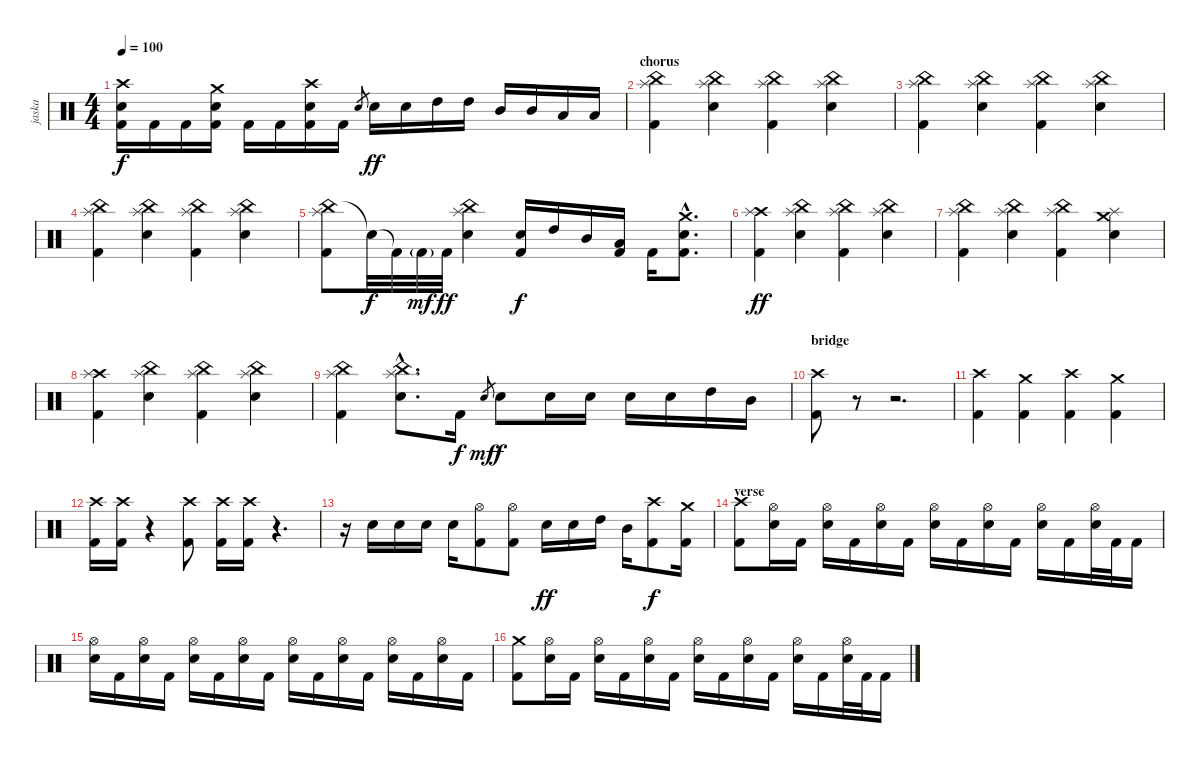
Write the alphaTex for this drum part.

\track ("jaska" "jaska") {instrument percussion}
\staff {score}
\articulation defaults
\ts (4 4)
\tempo 100
\clef neutral
\ks c
("Crash high (hit)" "Electric Snare (hit)" "Kick (hit) 2").16{dy f} "Kick (hit) 2".16 "Kick (hit) 2".16 ("Crash medium (hit)" "Electric Snare (hit)" "Kick (hit) 2").16 "Kick (hit) 2".16 "Kick (hit) 2".16 ("Crash high (hit)" "Electric Snare (hit)" "Kick (hit) 2").16 "Kick (hit) 2".16 "Electric Snare (hit)".8{gr} "Electric Snare (hit)".16{dy ff} "Electric Snare (hit)".16 "High Tom (hit)".16 "High Tom (hit)".16 "Mid Tom (hit)".16 "Mid Tom (hit)".16 "Low Tom (hit)".16 "Low Tom (hit)".16 |
\section ("" "chorus")
("China (hit)" "Splash (hit)" "Kick (hit) 2").4 ("China (hit)" "Splash (hit)" "Electric Snare (hit)").4 ("China (hit)" "Splash (hit)" "Kick (hit) 2").4 ("China (hit)" "Splash (hit)" "Electric Snare (hit)").4 |
("China (hit)" "Splash (hit)" "Kick (hit) 2").4 ("China (hit)" "Splash (hit)" "Electric Snare (hit)").4 ("China (hit)" "Splash (hit)" "Kick (hit) 2").4 ("China (hit)" "Splash (hit)" "Electric Snare (hit)").4 |
("China (hit)" "Splash (hit)" "Kick (hit) 2").4 ("China (hit)" "Splash (hit)" "Electric Snare (hit)").4 ("China (hit)" "Splash (hit)" "Kick (hit) 2").4 ("China (hit)" "Splash (hit)" "Electric Snare (hit)").4 |
("China (hit)" "Splash (hit)" "Kick (hit) 2").8 "Snare (hit)"{t}.32{dy f} "Kick (hit) 2"{t}.32 "Kick (hit) 2"{g}.32{dy mf} "Kick (hit) 2".32{dy ff} ("China (hit)" "Splash (hit)" "Electric Snare (hit)").4 ("Electric Snare (hit)" "Kick (hit) 2").16{dy f} "High Tom (hit)".16 "Mid Tom (hit)".16 ("Low Tom (hit)" "Kick (hit) 2").16 "Kick (hit) 2".16 ("Crash medium (hit)"{hac} "Electric Snare (hit)"{hac} "Kick (hit) 2"{hac}).8{d} |
("Crash high (hit)" "Splash (hit)" "Kick (hit) 2").4{dy ff} ("China (hit)" "Splash (hit)" "Electric Snare (hit)").4 ("China (hit)" "Splash (hit)" "Kick (hit) 2").4 ("China (hit)" "Splash (hit)" "Electric Snare (hit)").4 |
("China (hit)" "Splash (hit)" "Kick (hit) 2").4 ("China (hit)" "Splash (hit)" "Electric Snare (hit)").4 ("China (hit)" "Splash (hit)" "Kick (hit) 2").4 ("Crash medium (hit)" "Splash (hit)" "Electric Snare (hit)").4 |
("Crash high (hit)" "Splash (hit)" "Kick (hit) 2").4 ("China (hit)" "Splash (hit)" "Electric Snare (hit)").4 ("China (hit)" "Splash (hit)" "Kick (hit) 2").4 ("China (hit)" "Splash (hit)" "Electric Snare (hit)").4 |
("China (hit)" "Splash (hit)" "Kick (hit) 2").4 ("China (hit)"{hac} "Splash (hit)"{hac} "Electric Snare (hit)"{hac}).8{d} "Kick (hit) 2".16{dy f} "Electric Snare (hit)".8{gr dy mf} "Electric Snare (hit)".8{dy f} "Electric Snare (hit)".16 "Electric Snare (hit)".16 "Electric Snare (hit)".16 "Electric Snare (hit)".16 "High Tom (hit)".16 "Mid Tom (hit)".16 |
\section ("" "bridge")
("Crash high (hit)"{pm} "Kick (hit) 2").8 r.8 r.2{d} |
("Crash high (hit)" "Kick (hit) 2").4 ("Crash medium (hit)" "Kick (hit) 2").4 ("Crash high (hit)" "Kick (hit) 2").4 ("Crash medium (hit)" "Kick (hit) 2").4 |
("Crash high (hit)"{pm} "Kick (hit) 2").16 ("Crash high (hit)"{pm} "Kick (hit) 2").16 r.4 ("Crash high (hit)"{pm} "Kick (hit) 2").8 ("Crash high (hit)"{pm} "Kick (hit) 2").16 ("Crash high (hit)"{pm} "Kick (hit) 2").16 r.4{d} |
r.16 "Electric Snare (hit)".16 "Electric Snare (hit)".16 "Electric Snare (hit)".16 "Electric Snare (hit)".16 ("Hi-Hat (open)" "Kick (hit) 2").8 ("Hi-Hat (open)" "Kick (hit) 2").8 "Electric Snare (hit)".16{dy ff} "Electric Snare (hit)".16 "High Tom (hit)".16 "Mid Tom (hit)".16 ("Crash high (hit)" "Kick (hit) 2").8{dy f} ("Crash medium (hit)" "Kick (hit) 2").16 |
\section ("" "verse")
("Crash high (hit)" "Kick (hit) 2").8 ("Hi-Hat (open)" "Electric Snare (hit)").16 "Kick (hit) 2".16 ("Hi-Hat (open)" "Electric Snare (hit)").16 "Kick (hit) 2".16 ("Hi-Hat (open)" "Electric Snare (hit)").16 "Kick (hit) 2".16 ("Hi-Hat (open)" "Electric Snare (hit)").16 "Kick (hit) 2".16 ("Hi-Hat (open)" "Electric Snare (hit)").16 "Kick (hit) 2".16 ("Hi-Hat (open)" "Electric Snare (hit)").16 "Kick (hit) 2".16 ("Hi-Hat (open)" "Electric Snare (hit)").32 "Kick (hit) 2".32 "Kick (hit) 2".16 |
("Hi-Hat (open)" "Electric Snare (hit)").16 "Kick (hit) 2".16 ("Hi-Hat (open)" "Electric Snare (hit)").16 "Kick (hit) 2".16 ("Hi-Hat (open)" "Electric Snare (hit)").16 "Kick (hit) 2".16 ("Hi-Hat (open)" "Electric Snare (hit)").16 "Kick (hit) 2".16 ("Hi-Hat (open)" "Electric Snare (hit)").16 "Kick (hit) 2".16 ("Hi-Hat (open)" "Electric Snare (hit)").16 "Kick (hit) 2".16 ("Hi-Hat (open)" "Electric Snare (hit)").16 "Kick (hit) 2".16 ("Hi-Hat (open)" "Electric Snare (hit)").16 "Kick (hit) 2".16 |
("Crash medium (hit)" "Kick (hit) 2").8 ("Hi-Hat (open)" "Electric Snare (hit)").16 "Kick (hit) 2".16 ("Hi-Hat (open)" "Electric Snare (hit)").16 "Kick (hit) 2".16 ("Hi-Hat (open)" "Electric Snare (hit)").16 "Kick (hit) 2".16 ("Hi-Hat (open)" "Electric Snare (hit)").16 "Kick (hit) 2".16 ("Hi-Hat (open)" "Electric Snare (hit)").16 "Kick (hit) 2".16 ("Hi-Hat (open)" "Electric Snare (hit)").16 "Kick (hit) 2".16 ("Hi-Hat (open)" "Electric Snare (hit)").32 "Kick (hit) 2".32 "Kick (hit) 2".16
